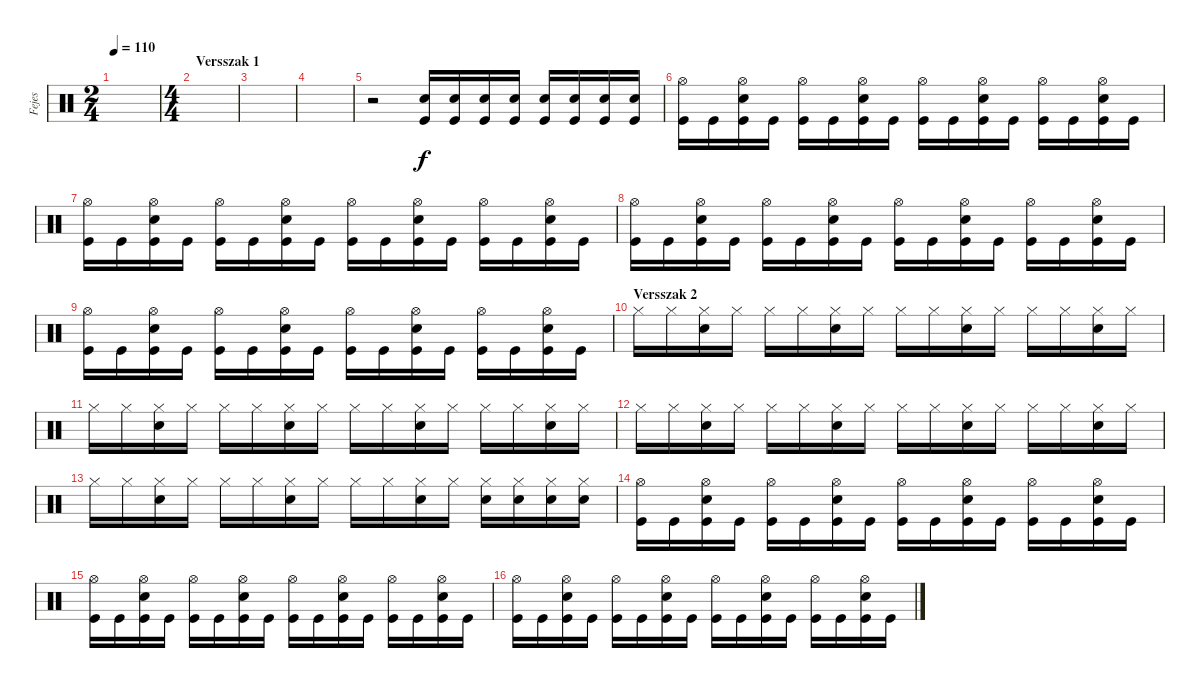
\track ("Fejes" "Fejes") {instrument percussion}
\staff {score}
\articulation defaults
\ts (2 4)
\tempo 110
\clef neutral
\ks c
|
\ts (4 4)
\section ("" "Versszak 1")
|
|
|
r.2 ("Snare (hit) 2" "Kick (hit)").16 ("Snare (hit) 2" "Kick (hit)").16 ("Snare (hit) 2" "Kick (hit)").16 ("Snare (hit) 2" "Kick (hit)").16 ("Snare (hit) 2" "Kick (hit)").16 ("Snare (hit) 2" "Kick (hit)").16 ("Snare (hit) 2" "Kick (hit)").16 ("Snare (hit) 2" "Kick (hit)").16 |
("Hi-Hat (open)" "Kick (hit)").16 "Kick (hit)".16 ("Hi-Hat (open)" "Snare (hit) 2" "Kick (hit)").16 "Kick (hit)".16 ("Hi-Hat (open)" "Kick (hit)").16 "Kick (hit)".16 ("Hi-Hat (open)" "Snare (hit) 2" "Kick (hit)").16 "Kick (hit)".16 ("Hi-Hat (open)" "Kick (hit)").16 "Kick (hit)".16 ("Hi-Hat (open)" "Snare (hit) 2" "Kick (hit)").16 "Kick (hit)".16 ("Hi-Hat (open)" "Kick (hit)").16 "Kick (hit)".16 ("Hi-Hat (open)" "Snare (hit) 2" "Kick (hit)").16 "Kick (hit)".16 |
("Hi-Hat (open)" "Kick (hit)").16 "Kick (hit)".16 ("Hi-Hat (open)" "Snare (hit) 2" "Kick (hit)").16 "Kick (hit)".16 ("Hi-Hat (open)" "Kick (hit)").16 "Kick (hit)".16 ("Hi-Hat (open)" "Snare (hit) 2" "Kick (hit)").16 "Kick (hit)".16 ("Hi-Hat (open)" "Kick (hit)").16 "Kick (hit)".16 ("Hi-Hat (open)" "Snare (hit) 2" "Kick (hit)").16 "Kick (hit)".16 ("Hi-Hat (open)" "Kick (hit)").16 "Kick (hit)".16 ("Hi-Hat (open)" "Snare (hit) 2" "Kick (hit)").16 "Kick (hit)".16 |
("Hi-Hat (open)" "Kick (hit)").16 "Kick (hit)".16 ("Hi-Hat (open)" "Snare (hit) 2" "Kick (hit)").16 "Kick (hit)".16 ("Hi-Hat (open)" "Kick (hit)").16 "Kick (hit)".16 ("Hi-Hat (open)" "Snare (hit) 2" "Kick (hit)").16 "Kick (hit)".16 ("Hi-Hat (open)" "Kick (hit)").16 "Kick (hit)".16 ("Hi-Hat (open)" "Snare (hit) 2" "Kick (hit)").16 "Kick (hit)".16 ("Hi-Hat (open)" "Kick (hit)").16 "Kick (hit)".16 ("Hi-Hat (open)" "Snare (hit) 2" "Kick (hit)").16 "Kick (hit)".16 |
("Hi-Hat (open)" "Kick (hit)").16 "Kick (hit)".16 ("Hi-Hat (open)" "Snare (hit) 2" "Kick (hit)").16 "Kick (hit)".16 ("Hi-Hat (open)" "Kick (hit)").16 "Kick (hit)".16 ("Hi-Hat (open)" "Snare (hit) 2" "Kick (hit)").16 "Kick (hit)".16 ("Hi-Hat (open)" "Kick (hit)").16 "Kick (hit)".16 ("Hi-Hat (open)" "Snare (hit) 2" "Kick (hit)").16 "Kick (hit)".16 ("Hi-Hat (open)" "Kick (hit)").16 "Kick (hit)".16 ("Hi-Hat (open)" "Snare (hit) 2" "Kick (hit)").16 "Kick (hit)".16 |
\section ("" "Versszak 2")
"Hi-Hat (closed)".16 "Hi-Hat (closed)".16 ("Hi-Hat (closed)" "Snare (hit) 2").16 "Hi-Hat (closed)".16 "Hi-Hat (closed)".16 "Hi-Hat (closed)".16 ("Hi-Hat (closed)" "Snare (hit) 2").16 "Hi-Hat (closed)".16 "Hi-Hat (closed)".16 "Hi-Hat (closed)".16 ("Hi-Hat (closed)" "Snare (hit) 2").16 "Hi-Hat (closed)".16 "Hi-Hat (closed)".16 "Hi-Hat (closed)".16 ("Hi-Hat (closed)" "Snare (hit) 2").16 "Hi-Hat (closed)".16 |
"Hi-Hat (closed)".16 "Hi-Hat (closed)".16 ("Hi-Hat (closed)" "Snare (hit) 2").16 "Hi-Hat (closed)".16 "Hi-Hat (closed)".16 "Hi-Hat (closed)".16 ("Hi-Hat (closed)" "Snare (hit) 2").16 "Hi-Hat (closed)".16 "Hi-Hat (closed)".16 "Hi-Hat (closed)".16 ("Hi-Hat (closed)" "Snare (hit) 2").16 "Hi-Hat (closed)".16 "Hi-Hat (closed)".16 "Hi-Hat (closed)".16 ("Hi-Hat (closed)" "Snare (hit) 2").16 "Hi-Hat (closed)".16 |
"Hi-Hat (closed)".16 "Hi-Hat (closed)".16 ("Hi-Hat (closed)" "Snare (hit) 2").16 "Hi-Hat (closed)".16 "Hi-Hat (closed)".16 "Hi-Hat (closed)".16 ("Hi-Hat (closed)" "Snare (hit) 2").16 "Hi-Hat (closed)".16 "Hi-Hat (closed)".16 "Hi-Hat (closed)".16 ("Hi-Hat (closed)" "Snare (hit) 2").16 "Hi-Hat (closed)".16 "Hi-Hat (closed)".16 "Hi-Hat (closed)".16 ("Hi-Hat (closed)" "Snare (hit) 2").16 "Hi-Hat (closed)".16 |
"Hi-Hat (closed)".16 "Hi-Hat (closed)".16 ("Hi-Hat (closed)" "Snare (hit) 2").16 "Hi-Hat (closed)".16 "Hi-Hat (closed)".16 "Hi-Hat (closed)".16 ("Hi-Hat (closed)" "Snare (hit) 2").16 "Hi-Hat (closed)".16 "Hi-Hat (closed)".16 "Hi-Hat (closed)".16 ("Hi-Hat (closed)" "Snare (hit) 2").16 "Hi-Hat (closed)".16 ("Hi-Hat (closed)" "Snare (hit) 2").16 ("Hi-Hat (closed)" "Snare (hit) 2").16 ("Hi-Hat (closed)" "Snare (hit) 2").16 ("Hi-Hat (closed)" "Snare (hit) 2").16 |
("Hi-Hat (open)" "Kick (hit)").16 "Kick (hit)".16 ("Hi-Hat (open)" "Snare (hit) 2" "Kick (hit)").16 "Kick (hit)".16 ("Hi-Hat (open)" "Kick (hit)").16 "Kick (hit)".16 ("Hi-Hat (open)" "Snare (hit) 2" "Kick (hit)").16 "Kick (hit)".16 ("Hi-Hat (open)" "Kick (hit)").16 "Kick (hit)".16 ("Hi-Hat (open)" "Snare (hit) 2" "Kick (hit)").16 "Kick (hit)".16 ("Hi-Hat (open)" "Kick (hit)").16 "Kick (hit)".16 ("Hi-Hat (open)" "Snare (hit) 2" "Kick (hit)").16 "Kick (hit)".16 |
("Hi-Hat (open)" "Kick (hit)").16 "Kick (hit)".16 ("Hi-Hat (open)" "Snare (hit) 2" "Kick (hit)").16 "Kick (hit)".16 ("Hi-Hat (open)" "Kick (hit)").16 "Kick (hit)".16 ("Hi-Hat (open)" "Snare (hit) 2" "Kick (hit)").16 "Kick (hit)".16 ("Hi-Hat (open)" "Kick (hit)").16 "Kick (hit)".16 ("Hi-Hat (open)" "Snare (hit) 2" "Kick (hit)").16 "Kick (hit)".16 ("Hi-Hat (open)" "Kick (hit)").16 "Kick (hit)".16 ("Hi-Hat (open)" "Snare (hit) 2" "Kick (hit)").16 "Kick (hit)".16 |
("Hi-Hat (open)" "Kick (hit)").16 "Kick (hit)".16 ("Hi-Hat (open)" "Snare (hit) 2" "Kick (hit)").16 "Kick (hit)".16 ("Hi-Hat (open)" "Kick (hit)").16 "Kick (hit)".16 ("Hi-Hat (open)" "Snare (hit) 2" "Kick (hit)").16 "Kick (hit)".16 ("Hi-Hat (open)" "Kick (hit)").16 "Kick (hit)".16 ("Hi-Hat (open)" "Snare (hit) 2" "Kick (hit)").16 "Kick (hit)".16 ("Hi-Hat (open)" "Kick (hit)").16 "Kick (hit)".16 ("Hi-Hat (open)" "Snare (hit) 2" "Kick (hit)").16 "Kick (hit)".16
